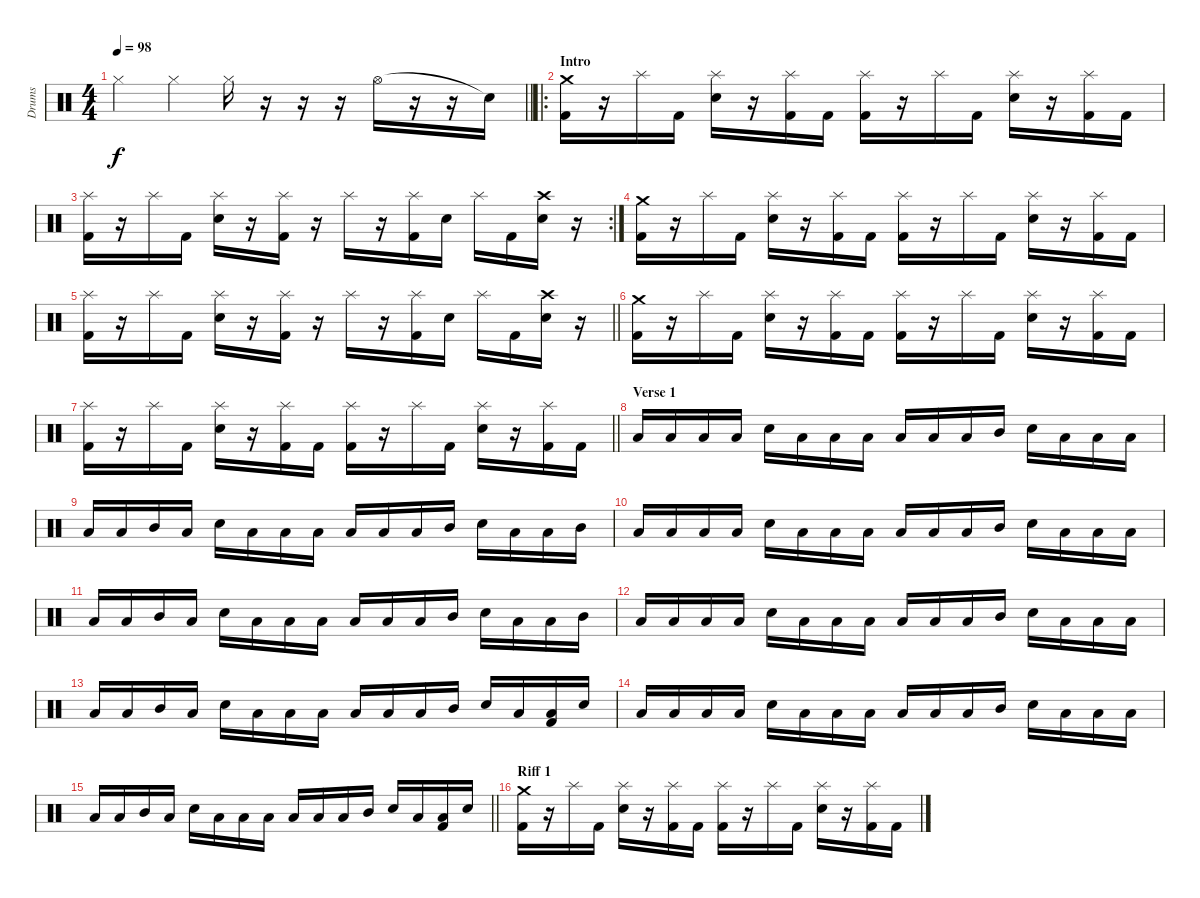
\track ("Drums" "Drums") {instrument percussion}
\staff {score}
\articulation defaults
\ts (4 4)
\tempo 98
\clef neutral
\barLineRight lightlight
\ks c "Hi-Hat (closed)".4{dy f} "Hi-Hat (closed)".4 "Hi-Hat (closed)".16
r.16 r.16 r.16 "Hi-Hat (open)".16 r.16 r.16 "Snare (hit)"{t}.16 |
\ro
\section ("" "Intro")
("Crash medium (hit)" "Kick (hit) 2").16 r.16 "Splash (hit)".16 "Kick (hit) 2".16 ("Splash (hit)" "Electric Snare (hit)").16 r.16 ("Splash (hit)" "Kick (hit) 2").16 "Kick (hit) 2".16 ("Splash (hit)" "Kick (hit) 2").16 r.16 "Splash (hit)".16 "Kick (hit) 2".16 ("Splash (hit)" "Electric Snare (hit)").16 r.16 ("Splash (hit)" "Kick (hit) 2").16 "Kick (hit) 2".16 |
\rc 2
("Splash (hit)" "Kick (hit) 2").16 r.16 "Splash (hit)".16 "Kick (hit) 2".16 ("Splash (hit)" "Electric Snare (hit)").16 r.16 ("Splash (hit)" "Kick (hit) 2").16 r.16 "Splash (hit)".16 r.16 ("Splash (hit)" "Kick (hit) 2").16 "Electric Snare (hit)".16 "Splash (hit)".16 "Kick (hit) 2".16 ("Crash high (hit)" "Electric Snare (hit)").16 r.16 |
("Crash medium (hit)" "Kick (hit) 2").16 r.16 "Splash (hit)".16 "Kick (hit) 2".16 ("Splash (hit)" "Electric Snare (hit)").16 r.16 ("Splash (hit)" "Kick (hit) 2").16 "Kick (hit) 2".16 ("Splash (hit)" "Kick (hit) 2").16 r.16 "Splash (hit)".16 "Kick (hit) 2".16 ("Splash (hit)" "Electric Snare (hit)").16 r.16 ("Splash (hit)" "Kick (hit) 2").16 "Kick (hit) 2".16 |
\barLineRight lightlight
("Splash (hit)" "Kick (hit) 2").16 r.16 "Splash (hit)".16 "Kick (hit) 2".16 ("Splash (hit)" "Electric Snare (hit)").16 r.16 ("Splash (hit)" "Kick (hit) 2").16 r.16 "Splash (hit)".16 r.16 ("Splash (hit)" "Kick (hit) 2").16 "Electric Snare (hit)".16 "Splash (hit)".16 "Kick (hit) 2".16 ("Crash high (hit)" "Electric Snare (hit)").16 r.16 |
("Crash medium (hit)" "Kick (hit) 2").16 r.16 "Splash (hit)".16 "Kick (hit) 2".16 ("Splash (hit)" "Electric Snare (hit)").16 r.16 ("Splash (hit)" "Kick (hit) 2").16 "Kick (hit) 2".16 ("Splash (hit)" "Kick (hit) 2").16 r.16 "Splash (hit)".16 "Kick (hit) 2".16 ("Splash (hit)" "Electric Snare (hit)").16 r.16 ("Splash (hit)" "Kick (hit) 2").16 "Kick (hit) 2".16 |
\barLineRight lightlight
("Splash (hit)" "Kick (hit) 2").16 r.16 "Splash (hit)".16 "Kick (hit) 2".16 ("Splash (hit)" "Electric Snare (hit)").16 r.16 ("Splash (hit)" "Kick (hit) 2").16 "Kick (hit) 2".16 ("Splash (hit)" "Kick (hit) 2").16 r.16 "Splash (hit)".16 "Kick (hit) 2".16 ("Splash (hit)" "Electric Snare (hit)").16 r.16 ("Splash (hit)" "Kick (hit) 2").16 "Kick (hit) 2".16 |
\section ("" "Verse 1")
"Low Floor Tom (hit)".16 "Low Floor Tom (hit)".16 "Low Floor Tom (hit)".16 "Low Floor Tom (hit)".16 "Electric Snare (hit)".16 "Low Floor Tom (hit)".16 "Low Floor Tom (hit)".16 "Low Floor Tom (hit)".16 "Low Floor Tom (hit)".16 "Low Tom (hit)".16 "Low Floor Tom (hit)".16 "Mid Tom (hit)".16 "Electric Snare (hit)".16 "Low Floor Tom (hit)".16 "Low Floor Tom (hit)".16 "Low Floor Tom (hit)".16 |
"Low Floor Tom (hit)".16 "Low Floor Tom (hit)".16 "Mid Tom (hit)".16 "Low Floor Tom (hit)".16 "Electric Snare (hit)".16 "Low Floor Tom (hit)".16 "Low Floor Tom (hit)".16 "Low Floor Tom (hit)".16 "Low Floor Tom (hit)".16 "Low Tom (hit)".16 "Low Floor Tom (hit)".16 "Mid Tom (hit)".16 "Electric Snare (hit)".16 "Low Floor Tom (hit)".16 "Low Floor Tom (hit)".16 "Mid Tom (hit)".16 |
"Low Floor Tom (hit)".16 "Low Floor Tom (hit)".16 "Low Floor Tom (hit)".16 "Low Floor Tom (hit)".16 "Electric Snare (hit)".16 "Low Floor Tom (hit)".16 "Low Floor Tom (hit)".16 "Low Floor Tom (hit)".16 "Low Floor Tom (hit)".16 "Low Tom (hit)".16 "Low Floor Tom (hit)".16 "Mid Tom (hit)".16 "Electric Snare (hit)".16 "Low Floor Tom (hit)".16 "Low Floor Tom (hit)".16 "Low Floor Tom (hit)".16 |
"Low Floor Tom (hit)".16 "Low Floor Tom (hit)".16 "Mid Tom (hit)".16 "Low Floor Tom (hit)".16 "Electric Snare (hit)".16 "Low Floor Tom (hit)".16 "Low Floor Tom (hit)".16 "Low Floor Tom (hit)".16 "Low Floor Tom (hit)".16 "Low Tom (hit)".16 "Low Floor Tom (hit)".16 "Mid Tom (hit)".16 "Electric Snare (hit)".16 "Low Floor Tom (hit)".16 "Low Floor Tom (hit)".16 "Mid Tom (hit)".16 |
"Low Floor Tom (hit)".16 "Low Floor Tom (hit)".16 "Low Floor Tom (hit)".16 "Low Floor Tom (hit)".16 "Electric Snare (hit)".16 "Low Floor Tom (hit)".16 "Low Floor Tom (hit)".16 "Low Floor Tom (hit)".16 "Low Floor Tom (hit)".16 "Low Tom (hit)".16 "Low Floor Tom (hit)".16 "Mid Tom (hit)".16 "Electric Snare (hit)".16 "Low Floor Tom (hit)".16 "Low Floor Tom (hit)".16 "Low Floor Tom (hit)".16 |
"Low Floor Tom (hit)".16 "Low Floor Tom (hit)".16 "Mid Tom (hit)".16 "Low Floor Tom (hit)".16 "Electric Snare (hit)".16 "Low Floor Tom (hit)".16 "Low Floor Tom (hit)".16 "Low Floor Tom (hit)".16 "Low Floor Tom (hit)".16 "Low Tom (hit)".16 "Low Floor Tom (hit)".16 "Mid Tom (hit)".16 "Electric Snare (hit)".16 "Low Floor Tom (hit)".16 ("Low Floor Tom (hit)" "Kick (hit) 2").16 "Electric Snare (hit)".16 |
"Low Floor Tom (hit)".16 "Low Floor Tom (hit)".16 "Low Floor Tom (hit)".16 "Low Floor Tom (hit)".16 "Electric Snare (hit)".16 "Low Floor Tom (hit)".16 "Low Floor Tom (hit)".16 "Low Floor Tom (hit)".16 "Low Floor Tom (hit)".16 "Low Tom (hit)".16 "Low Floor Tom (hit)".16 "Mid Tom (hit)".16 "Electric Snare (hit)".16 "Low Floor Tom (hit)".16 "Low Floor Tom (hit)".16 "Low Floor Tom (hit)".16 |
\barLineRight lightlight "Low Floor Tom (hit)".16 "Low Floor Tom (hit)".16 "Mid Tom (hit)".16 "Low Floor Tom (hit)".16 "Electric Snare (hit)".16 "Low Floor Tom (hit)".16 "Low Floor Tom (hit)".16 "Low Floor Tom (hit)".16 "Low Floor Tom (hit)".16 "Low Tom (hit)".16 "Low Floor Tom (hit)".16 "Mid Tom (hit)".16 "Electric Snare (hit)".16 "Low Floor Tom (hit)".16
("Low Floor Tom (hit)" "Kick (hit) 2").16 "Electric Snare (hit)".16 |
\section ("" "Riff 1")
("Crash medium (hit)" "Kick (hit) 2").16 r.16 "Splash (hit)".16 "Kick (hit) 2".16 ("Splash (hit)" "Electric Snare (hit)").16 r.16 ("Splash (hit)" "Kick (hit) 2").16 "Kick (hit) 2".16 ("Splash (hit)" "Kick (hit) 2").16 r.16 "Splash (hit)".16 "Kick (hit) 2".16 ("Splash (hit)" "Electric Snare (hit)").16 r.16 ("Splash (hit)" "Kick (hit) 2").16 "Kick (hit) 2".16
